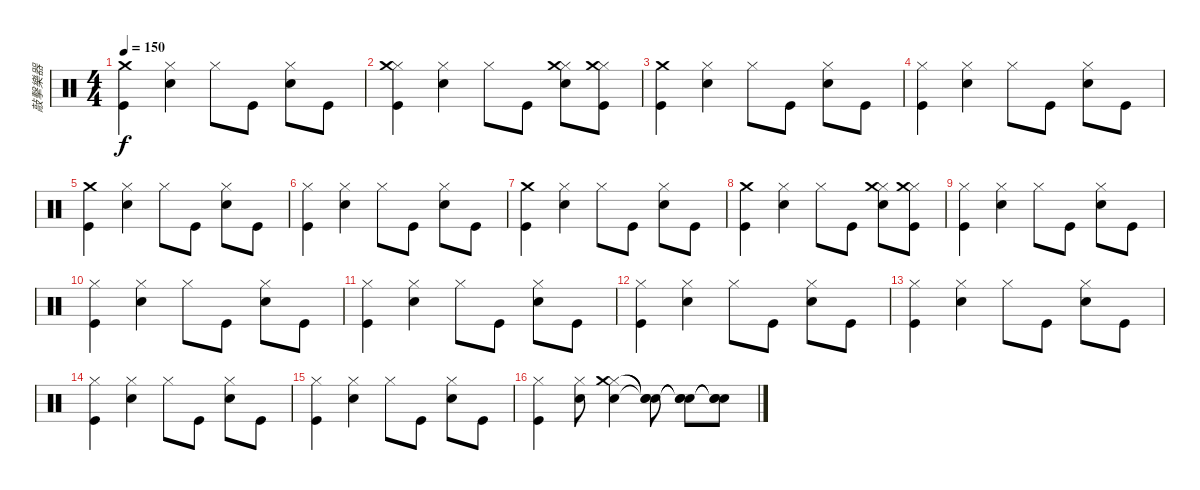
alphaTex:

\track ("敲擊樂器" "敲擊樂器") {instrument percussion}
\staff {score}
\articulation defaults
\ts (4 4)
\tempo 150
\clef neutral
\ks c
("Kick (hit)" "Crash medium (hit)").4{dy f} ("Snare (hit) 2" "Hi-Hat (closed)").4 "Hi-Hat (closed)".8 "Kick (hit)".8 ("Snare (hit) 2" "Hi-Hat (closed)").8 "Kick (hit)".8 |
("Kick (hit)" "Hi-Hat (closed)" "Crash medium (hit)").4 ("Snare (hit) 2" "Hi-Hat (closed)").4 "Hi-Hat (closed)".8 "Kick (hit)".8 ("Snare (hit) 2" "Hi-Hat (closed)" "Crash medium (hit)").8 ("Kick (hit)" "Hi-Hat (closed)" "Crash medium (hit)").8 |
("Kick (hit)" "Crash medium (hit)").4 ("Snare (hit) 2" "Hi-Hat (closed)").4 "Hi-Hat (closed)".8 "Kick (hit)".8 ("Snare (hit) 2" "Hi-Hat (closed)").8 "Kick (hit)".8 |
("Kick (hit)" "Hi-Hat (closed)").4 ("Snare (hit) 2" "Hi-Hat (closed)").4 "Hi-Hat (closed)".8 "Kick (hit)".8 ("Snare (hit) 2" "Hi-Hat (closed)").8 "Kick (hit)".8 |
("Kick (hit)" "Crash medium (hit)").4 ("Snare (hit) 2" "Hi-Hat (closed)").4 "Hi-Hat (closed)".8 "Kick (hit)".8 ("Snare (hit) 2" "Hi-Hat (closed)").8 "Kick (hit)".8 |
("Kick (hit)" "Hi-Hat (closed)").4 ("Snare (hit) 2" "Hi-Hat (closed)").4 "Hi-Hat (closed)".8 "Kick (hit)".8 ("Snare (hit) 2" "Hi-Hat (closed)").8 "Kick (hit)".8 |
("Kick (hit)" "Crash medium (hit)").4 ("Snare (hit) 2" "Hi-Hat (closed)").4 "Hi-Hat (closed)".8 "Kick (hit)".8 ("Snare (hit) 2" "Hi-Hat (closed)").8 "Kick (hit)".8 |
("Kick (hit)" "Crash medium (hit)").4 ("Snare (hit) 2" "Hi-Hat (closed)").4 "Hi-Hat (closed)".8 "Kick (hit)".8 ("Snare (hit) 2" "Hi-Hat (closed)" "Crash medium (hit)").8 ("Kick (hit)" "Hi-Hat (closed)" "Crash medium (hit)").8 |
("Kick (hit)" "Hi-Hat (closed)").4 ("Snare (hit) 2" "Hi-Hat (closed)").4 "Hi-Hat (closed)".8 "Kick (hit)".8 ("Snare (hit) 2" "Hi-Hat (closed)").8 "Kick (hit)".8 |
("Kick (hit)" "Hi-Hat (closed)").4 ("Snare (hit) 2" "Hi-Hat (closed)").4 "Hi-Hat (closed)".8 "Kick (hit)".8 ("Snare (hit) 2" "Hi-Hat (closed)").8 "Kick (hit)".8 |
("Kick (hit)" "Hi-Hat (closed)").4 ("Snare (hit) 2" "Hi-Hat (closed)").4 "Hi-Hat (closed)".8 "Kick (hit)".8 ("Snare (hit) 2" "Hi-Hat (closed)").8 "Kick (hit)".8 |
("Kick (hit)" "Hi-Hat (closed)").4 ("Snare (hit) 2" "Hi-Hat (closed)").4 "Hi-Hat (closed)".8 "Kick (hit)".8 ("Snare (hit) 2" "Hi-Hat (closed)").8 "Kick (hit)".8 |
("Kick (hit)" "Hi-Hat (closed)").4 ("Snare (hit) 2" "Hi-Hat (closed)").4 "Hi-Hat (closed)".8 "Kick (hit)".8 ("Snare (hit) 2" "Hi-Hat (closed)").8 "Kick (hit)".8 |
("Kick (hit)" "Hi-Hat (closed)").4 ("Snare (hit) 2" "Hi-Hat (closed)").4 "Hi-Hat (closed)".8 "Kick (hit)".8 ("Snare (hit) 2" "Hi-Hat (closed)").8 "Kick (hit)".8 |
("Kick (hit)" "Hi-Hat (closed)").4 ("Snare (hit) 2" "Hi-Hat (closed)").4 "Hi-Hat (closed)".8 "Kick (hit)".8 ("Snare (hit) 2" "Hi-Hat (closed)").8 "Kick (hit)".8 |
("Kick (hit)" "Hi-Hat (closed)").4 ("Snare (hit) 2" "Hi-Hat (closed)").8 ("Hi-Hat (closed)" "Snare (hit) 2" "Crash medium (hit)").4 ("Snare (hit)"{t} "Snare (hit)"{t} "Snare (hit)"{t}).8 ("Snare (hit)"{t} "Snare (hit)"{t} "Snare (hit)"{t}).8 ("Snare (hit)"{t} "Snare (hit)"{t} "Snare (hit)"{t}).8
